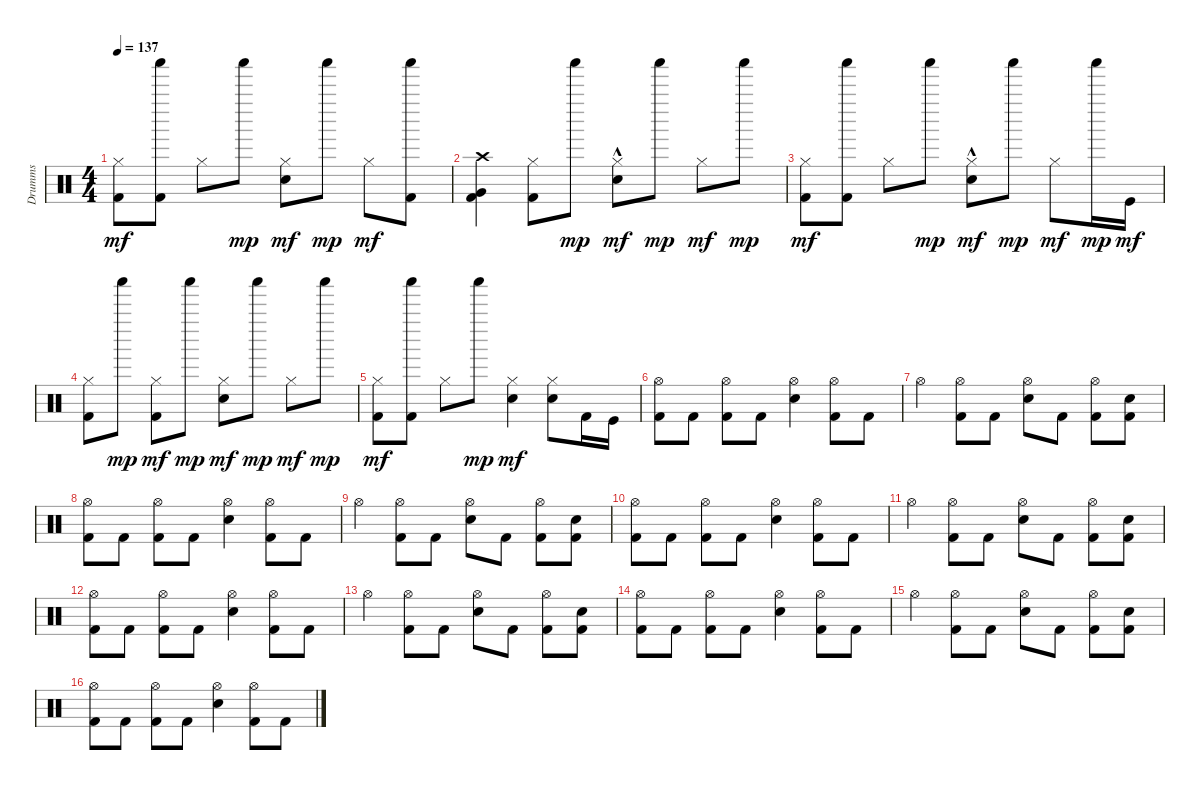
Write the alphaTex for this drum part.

\track ("Drumms" "Drumms") {instrument percussion}
\staff {score}
\articulation defaults
\ts (4 4)
\tempo 137
\clef neutral
\ks c
("Kick (hit) 2" "Hi-Hat (closed)").8{dy mf} ("Shaker (hit)" "Kick (hit) 2").8 "Hi-Hat (closed)".8 "Shaker (hit)".8{dy mp} ("Hi-Hat (closed)" "Snare (hit) 2").8{dy mf} "Shaker (hit)".8{dy mp} "Hi-Hat (closed)".8{dy mf} ("Shaker (hit)" "Kick (hit) 2").8 |
("Very Low Tom (hit)" "Crash high (hit)" "Kick (hit) 2").4 ("Hi-Hat (closed)" "Kick (hit) 2").8 "Shaker (hit)".8{dy mp} ("Hi-Hat (closed)"{hac} "Snare (hit) 2").8{dy mf} "Shaker (hit)".8{dy mp} "Hi-Hat (closed)".8{dy mf} "Shaker (hit)".8{dy mp} |
("Hi-Hat (closed)" "Kick (hit) 2").8{dy mf} ("Shaker (hit)" "Kick (hit) 2").8 "Hi-Hat (closed)".8 "Shaker (hit)".8{dy mp} ("Hi-Hat (closed)"{hac} "Snare (hit) 2").8{dy mf} "Shaker (hit)".8{dy mp} "Hi-Hat (closed)".8{dy mf} "Shaker (hit)".16{dy mp} "Kick (hit)".16{dy mf} |
("Hi-Hat (closed)" "Kick (hit) 2").8 "Shaker (hit)".8{dy mp} ("Hi-Hat (closed)" "Kick (hit) 2").8{dy mf} "Shaker (hit)".8{dy mp} ("Hi-Hat (closed)" "Snare (hit) 2").8{dy mf} "Shaker (hit)".8{dy mp} "Hi-Hat (closed)".8{dy mf} "Shaker (hit)".8{dy mp} |
("Hi-Hat (closed)" "Kick (hit) 2").8{dy mf} ("Shaker (hit)" "Kick (hit) 2").8 "Hi-Hat (closed)".8 "Shaker (hit)".8{dy mp} ("Hi-Hat (closed)" "Snare (hit) 2").4{dy mf} ("Hi-Hat (closed)" "Snare (hit) 2").8 "Kick (hit) 2".16 "Kick (hit)".16 |
\section ("" "")
("Hi-Hat (open)" "Kick (hit) 2").8 "Kick (hit) 2".8 ("Kick (hit) 2" "Hi-Hat (open)").8 "Kick (hit) 2".8 ("Snare (hit) 2" "Hi-Hat (open)").4 ("Hi-Hat (open)" "Kick (hit) 2").8 "Kick (hit) 2".8 |
"Hi-Hat (open)".4 ("Hi-Hat (open)" "Kick (hit) 2").8 "Kick (hit) 2".8 ("Hi-Hat (open)" "Snare (hit) 2").8 "Kick (hit) 2".8 ("Hi-Hat (open)" "Kick (hit) 2").8 ("Snare (hit) 2" "Kick (hit) 2").8 |
("Hi-Hat (open)" "Kick (hit) 2").8 "Kick (hit) 2".8 ("Kick (hit) 2" "Hi-Hat (open)").8 "Kick (hit) 2".8 ("Snare (hit) 2" "Hi-Hat (open)").4 ("Hi-Hat (open)" "Kick (hit) 2").8 "Kick (hit) 2".8 |
"Hi-Hat (open)".4 ("Hi-Hat (open)" "Kick (hit) 2").8 "Kick (hit) 2".8 ("Hi-Hat (open)" "Snare (hit) 2").8 "Kick (hit) 2".8 ("Hi-Hat (open)" "Kick (hit) 2").8 ("Snare (hit) 2" "Kick (hit) 2").8 |
("Hi-Hat (open)" "Kick (hit) 2").8 "Kick (hit) 2".8 ("Kick (hit) 2" "Hi-Hat (open)").8 "Kick (hit) 2".8 ("Snare (hit) 2" "Hi-Hat (open)").4 ("Hi-Hat (open)" "Kick (hit) 2").8 "Kick (hit) 2".8 |
"Hi-Hat (open)".4 ("Hi-Hat (open)" "Kick (hit) 2").8 "Kick (hit) 2".8 ("Hi-Hat (open)" "Snare (hit) 2").8 "Kick (hit) 2".8 ("Hi-Hat (open)" "Kick (hit) 2").8 ("Snare (hit) 2" "Kick (hit) 2").8 |
("Hi-Hat (open)" "Kick (hit) 2").8 "Kick (hit) 2".8 ("Kick (hit) 2" "Hi-Hat (open)").8 "Kick (hit) 2".8 ("Snare (hit) 2" "Hi-Hat (open)").4 ("Hi-Hat (open)" "Kick (hit) 2").8 "Kick (hit) 2".8 |
"Hi-Hat (open)".4 ("Hi-Hat (open)" "Kick (hit) 2").8 "Kick (hit) 2".8 ("Hi-Hat (open)" "Snare (hit) 2").8 "Kick (hit) 2".8 ("Hi-Hat (open)" "Kick (hit) 2").8 ("Snare (hit) 2" "Kick (hit) 2").8 |
("Hi-Hat (open)" "Kick (hit) 2").8 "Kick (hit) 2".8 ("Kick (hit) 2" "Hi-Hat (open)").8 "Kick (hit) 2".8 ("Snare (hit) 2" "Hi-Hat (open)").4 ("Hi-Hat (open)" "Kick (hit) 2").8 "Kick (hit) 2".8 |
"Hi-Hat (open)".4 ("Hi-Hat (open)" "Kick (hit) 2").8 "Kick (hit) 2".8 ("Hi-Hat (open)" "Snare (hit) 2").8 "Kick (hit) 2".8 ("Hi-Hat (open)" "Kick (hit) 2").8 ("Snare (hit) 2" "Kick (hit) 2").8 |
("Hi-Hat (open)" "Kick (hit) 2").8 "Kick (hit) 2".8 ("Kick (hit) 2" "Hi-Hat (open)").8 "Kick (hit) 2".8 ("Snare (hit) 2" "Hi-Hat (open)").4 ("Hi-Hat (open)" "Kick (hit) 2").8 "Kick (hit) 2".8
